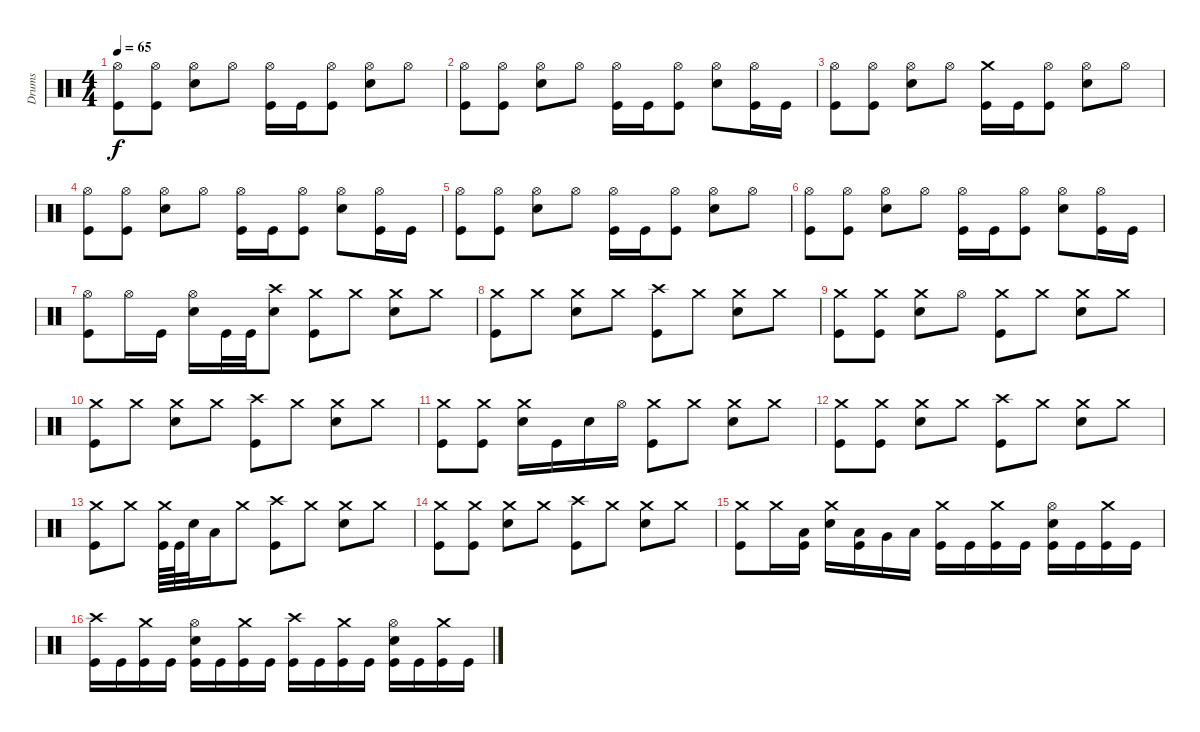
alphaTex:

\track ("Drums" "Drums") {instrument percussion}
\staff {score}
\articulation defaults
\ts (4 4)
\tempo 65
\clef neutral
\ks c
("Hi-Hat (open)" "Kick (hit)").8{dy f} ("Hi-Hat (open)" "Kick (hit)").8 ("Hi-Hat (open)" "Snare (hit) 2").8 "Hi-Hat (open)".8 ("Hi-Hat (open)" "Kick (hit)").16 "Kick (hit)".16 ("Hi-Hat (open)" "Kick (hit)").8 ("Hi-Hat (open)" "Snare (hit) 2").8 "Hi-Hat (open)".8 |
("Hi-Hat (open)" "Kick (hit)").8 ("Hi-Hat (open)" "Kick (hit)").8 ("Hi-Hat (open)" "Snare (hit) 2").8 "Hi-Hat (open)".8 ("Hi-Hat (open)" "Kick (hit)").16 "Kick (hit)".16 ("Hi-Hat (open)" "Kick (hit)").8 ("Hi-Hat (open)" "Snare (hit) 2").8 ("Hi-Hat (open)" "Kick (hit)").16 "Kick (hit)".16 |
("Hi-Hat (open)" "Kick (hit)").8 ("Hi-Hat (open)" "Kick (hit)").8 ("Hi-Hat (open)" "Snare (hit) 2").8 "Hi-Hat (open)".8 ("Crash medium (hit)" "Kick (hit)").16 "Kick (hit)".16 ("Hi-Hat (open)" "Kick (hit)").8 ("Hi-Hat (open)" "Snare (hit) 2").8 "Hi-Hat (open)".8 |
("Hi-Hat (open)" "Kick (hit)").8 ("Hi-Hat (open)" "Kick (hit)").8 ("Hi-Hat (open)" "Snare (hit) 2").8 "Hi-Hat (open)".8 ("Hi-Hat (open)" "Kick (hit)").16 "Kick (hit)".16 ("Hi-Hat (open)" "Kick (hit)").8 ("Hi-Hat (open)" "Snare (hit) 2").8 ("Hi-Hat (open)" "Kick (hit)").16 "Kick (hit)".16 |
("Hi-Hat (open)" "Kick (hit)").8 ("Hi-Hat (open)" "Kick (hit)").8 ("Hi-Hat (open)" "Snare (hit) 2").8 "Hi-Hat (open)".8 ("Hi-Hat (open)" "Kick (hit)").16 "Kick (hit)".16 ("Hi-Hat (open)" "Kick (hit)").8 ("Hi-Hat (open)" "Snare (hit) 2").8 "Hi-Hat (open)".8 |
("Hi-Hat (open)" "Kick (hit)").8 ("Hi-Hat (open)" "Kick (hit)").8 ("Hi-Hat (open)" "Snare (hit) 2").8 "Hi-Hat (open)".8 ("Hi-Hat (open)" "Kick (hit)").16 "Kick (hit)".16 ("Hi-Hat (open)" "Kick (hit)").8 ("Hi-Hat (open)" "Snare (hit) 2").8 ("Hi-Hat (open)" "Kick (hit)").16 "Kick (hit)".16 |
("Hi-Hat (open)" "Kick (hit)").8 "Hi-Hat (open)".16 "Kick (hit)".16 ("Hi-Hat (open)" "Snare (hit) 2").16 "Kick (hit)".32 "Kick (hit)".32 ("Crash high (hit)" "Snare (hit) 2").8 ("Crash medium (hit)" "Kick (hit)").8 "Crash medium (hit)".8 ("Crash medium (hit)" "Snare (hit) 2").8 "Crash medium (hit)".8 |
("Crash medium (hit)" "Kick (hit)").8 "Crash medium (hit)".8 ("Crash medium (hit)" "Snare (hit) 2").8 "Crash medium (hit)".8 ("Crash high (hit)" "Kick (hit)").8 "Crash medium (hit)".8 ("Crash medium (hit)" "Snare (hit) 2").8 "Crash medium (hit)".8 |
("Crash medium (hit)" "Kick (hit)").8 ("Crash medium (hit)" "Kick (hit)").8 ("Crash medium (hit)" "Snare (hit) 2").8 "Hi-Hat (open)".8 ("Crash medium (hit)" "Kick (hit)").8 "Crash medium (hit)".8 ("Crash medium (hit)" "Snare (hit) 2").8 "Crash medium (hit)".8 |
("Crash medium (hit)" "Kick (hit)").8 "Crash medium (hit)".8 ("Crash medium (hit)" "Snare (hit) 2").8 "Crash medium (hit)".8 ("Crash high (hit)" "Kick (hit)").8 "Crash medium (hit)".8 ("Crash medium (hit)" "Snare (hit) 2").8 "Crash medium (hit)".8 |
("Crash medium (hit)" "Kick (hit)").8 ("Crash medium (hit)" "Kick (hit)").8 ("Crash medium (hit)" "Snare (hit) 2").16 "Kick (hit)".16 "Snare (hit) 2".16 "Hi-Hat (open)".16 ("Crash medium (hit)" "Kick (hit)").8 "Crash medium (hit)".8 ("Crash medium (hit)" "Snare (hit) 2").8 "Crash medium (hit)".8 |
("Crash medium (hit)" "Kick (hit)").8 ("Crash medium (hit)" "Kick (hit)").8 ("Crash medium (hit)" "Snare (hit) 2").8 "Crash medium (hit)".8 ("Crash high (hit)" "Kick (hit)").8 "Crash medium (hit)".8 ("Crash medium (hit)" "Snare (hit) 2").8 "Crash medium (hit)".8 |
("Crash medium (hit)" "Kick (hit)").8 "Crash medium (hit)".8 ("Crash medium (hit)" "Kick (hit)").64 "Kick (hit)".64 "Snare (hit) 2".32 "Low Tom (hit)".16 "Crash medium (hit)".8 ("Crash high (hit)" "Kick (hit)").8 "Crash medium (hit)".8 ("Crash medium (hit)" "Snare (hit) 2").8 "Crash medium (hit)".8 |
("Crash medium (hit)" "Kick (hit)").8 ("Crash medium (hit)" "Kick (hit)").8 ("Crash medium (hit)" "Snare (hit) 2").8 "Crash medium (hit)".8 ("Crash high (hit)" "Kick (hit)").8 "Crash medium (hit)".8 ("Crash medium (hit)" "Snare (hit) 2").8 "Crash medium (hit)".8 |
("Crash medium (hit)" "Kick (hit)").8 "Crash medium (hit)".16 ("Low Tom (hit)" "Kick (hit)").16 ("Crash medium (hit)" "Snare (hit) 2").16 ("Low Tom (hit)" "Kick (hit)").16 "Very Low Tom (hit)".16 "Low Floor Tom (hit)".16 ("Crash medium (hit)" "Kick (hit)").16 "Kick (hit)".16 ("Crash medium (hit)" "Kick (hit)").16 "Kick (hit)".16 ("Hi-Hat (open)" "Snare (hit) 2" "Kick (hit)").16 "Kick (hit)".16 ("Crash medium (hit)" "Kick (hit)").16 "Kick (hit)".16 |
("Crash high (hit)" "Kick (hit)").16 "Kick (hit)".16 ("Crash medium (hit)" "Kick (hit)").16 "Kick (hit)".16 ("Hi-Hat (open)" "Snare (hit) 2" "Kick (hit)").16 "Kick (hit)".16 ("Crash medium (hit)" "Kick (hit)").16 "Kick (hit)".16 ("Crash high (hit)" "Kick (hit)").16 "Kick (hit)".16 ("Crash medium (hit)" "Kick (hit)").16 "Kick (hit)".16 ("Hi-Hat (open)" "Snare (hit) 2" "Kick (hit)").16 "Kick (hit)".16 ("Crash medium (hit)" "Kick (hit)").16 "Kick (hit)".16
